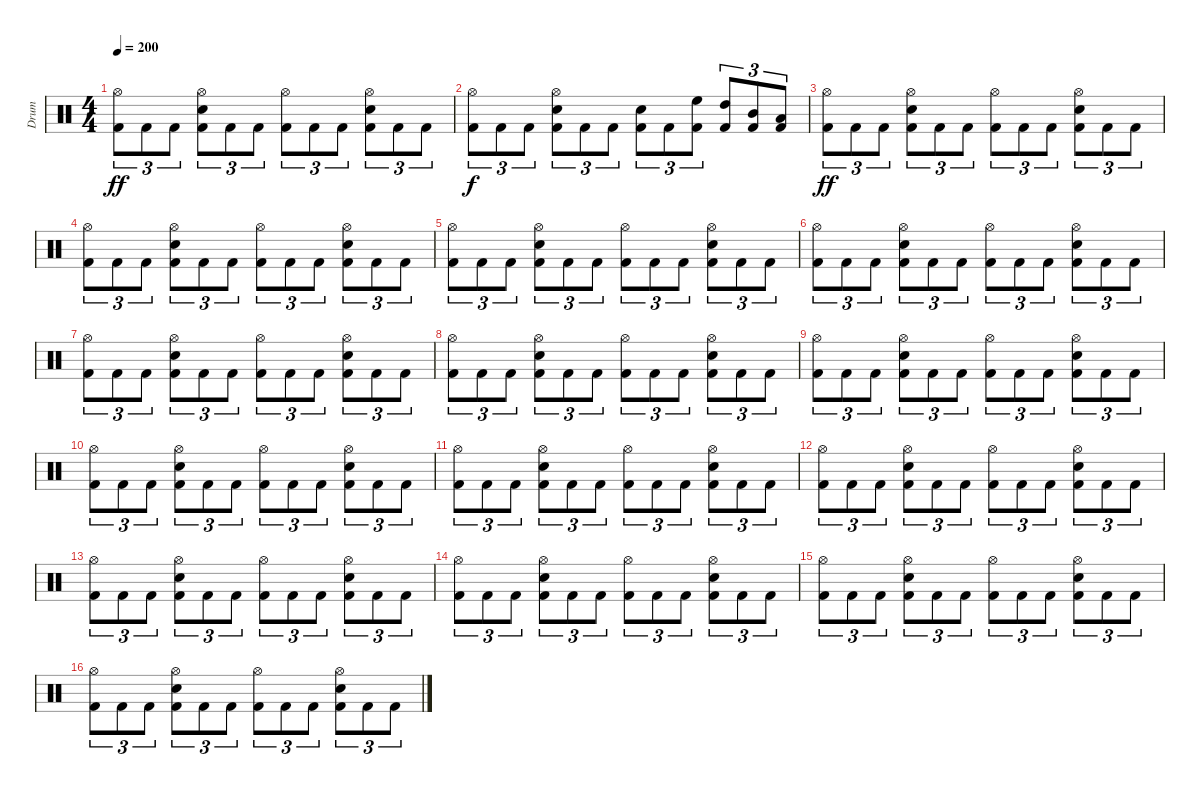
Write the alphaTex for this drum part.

\track ("Drum" "Drum") {instrument percussion}
\staff {score}
\articulation defaults
\ts (4 4)
\tempo 200
\clef neutral
\ks c
("Hi-Hat (open)" "Kick (hit) 2").8{tu (3 2) dy ff} "Kick (hit) 2".8{tu (3 2)} "Kick (hit) 2".8{tu (3 2)} ("Hi-Hat (open)" "Snare (hit) 2" "Kick (hit) 2").8{tu (3 2)} "Kick (hit) 2".8{tu (3 2)} "Kick (hit) 2".8{tu (3 2)} ("Hi-Hat (open)" "Kick (hit) 2").8{tu (3 2)} "Kick (hit) 2".8{tu (3 2)} "Kick (hit) 2".8{tu (3 2)} ("Hi-Hat (open)" "Snare (hit) 2" "Kick (hit) 2").8{tu (3 2)} "Kick (hit) 2".8{tu (3 2)} "Kick (hit) 2".8{tu (3 2)} |
("Hi-Hat (open)" "Kick (hit) 2").8{tu (3 2) dy f} "Kick (hit) 2".8{tu (3 2)} "Kick (hit) 2".8{tu (3 2)} ("Hi-Hat (open)" "Snare (hit) 2" "Kick (hit) 2").8{tu (3 2)} "Kick (hit) 2".8{tu (3 2)} "Kick (hit) 2".8{tu (3 2)} ("Snare (hit) 2" "Kick (hit) 2").8{tu (3 2)} "Kick (hit) 2".8{tu (3 2)} ("High Floor Tom (hit)" "Kick (hit) 2").8{tu (3 2)} ("High Tom (hit)" "Kick (hit) 2").8{tu (3 2)} ("Mid Tom (hit)" "Kick (hit) 2").8{tu (3 2)} ("Low Tom (hit)" "Kick (hit) 2").8{tu (3 2)} |
("Hi-Hat (open)" "Kick (hit) 2").8{tu (3 2) dy ff} "Kick (hit) 2".8{tu (3 2)} "Kick (hit) 2".8{tu (3 2)} ("Hi-Hat (open)" "Snare (hit) 2" "Kick (hit) 2").8{tu (3 2)} "Kick (hit) 2".8{tu (3 2)} "Kick (hit) 2".8{tu (3 2)} ("Hi-Hat (open)" "Kick (hit) 2").8{tu (3 2)} "Kick (hit) 2".8{tu (3 2)} "Kick (hit) 2".8{tu (3 2)} ("Hi-Hat (open)" "Snare (hit) 2" "Kick (hit) 2").8{tu (3 2)} "Kick (hit) 2".8{tu (3 2)} "Kick (hit) 2".8{tu (3 2)} |
("Hi-Hat (open)" "Kick (hit) 2").8{tu (3 2)} "Kick (hit) 2".8{tu (3 2)} "Kick (hit) 2".8{tu (3 2)} ("Hi-Hat (open)" "Snare (hit) 2" "Kick (hit) 2").8{tu (3 2)} "Kick (hit) 2".8{tu (3 2)} "Kick (hit) 2".8{tu (3 2)} ("Hi-Hat (open)" "Kick (hit) 2").8{tu (3 2)} "Kick (hit) 2".8{tu (3 2)} "Kick (hit) 2".8{tu (3 2)} ("Hi-Hat (open)" "Snare (hit) 2" "Kick (hit) 2").8{tu (3 2)} "Kick (hit) 2".8{tu (3 2)} "Kick (hit) 2".8{tu (3 2)} |
("Hi-Hat (open)" "Kick (hit) 2").8{tu (3 2)} "Kick (hit) 2".8{tu (3 2)} "Kick (hit) 2".8{tu (3 2)} ("Hi-Hat (open)" "Snare (hit) 2" "Kick (hit) 2").8{tu (3 2)} "Kick (hit) 2".8{tu (3 2)} "Kick (hit) 2".8{tu (3 2)} ("Hi-Hat (open)" "Kick (hit) 2").8{tu (3 2)} "Kick (hit) 2".8{tu (3 2)} "Kick (hit) 2".8{tu (3 2)} ("Hi-Hat (open)" "Snare (hit) 2" "Kick (hit) 2").8{tu (3 2)} "Kick (hit) 2".8{tu (3 2)} "Kick (hit) 2".8{tu (3 2)} |
("Hi-Hat (open)" "Kick (hit) 2").8{tu (3 2)} "Kick (hit) 2".8{tu (3 2)} "Kick (hit) 2".8{tu (3 2)} ("Hi-Hat (open)" "Snare (hit) 2" "Kick (hit) 2").8{tu (3 2)} "Kick (hit) 2".8{tu (3 2)} "Kick (hit) 2".8{tu (3 2)} ("Hi-Hat (open)" "Kick (hit) 2").8{tu (3 2)} "Kick (hit) 2".8{tu (3 2)} "Kick (hit) 2".8{tu (3 2)} ("Hi-Hat (open)" "Snare (hit) 2" "Kick (hit) 2").8{tu (3 2)} "Kick (hit) 2".8{tu (3 2)} "Kick (hit) 2".8{tu (3 2)} |
("Hi-Hat (open)" "Kick (hit) 2").8{tu (3 2)} "Kick (hit) 2".8{tu (3 2)} "Kick (hit) 2".8{tu (3 2)} ("Hi-Hat (open)" "Snare (hit) 2" "Kick (hit) 2").8{tu (3 2)} "Kick (hit) 2".8{tu (3 2)} "Kick (hit) 2".8{tu (3 2)} ("Hi-Hat (open)" "Kick (hit) 2").8{tu (3 2)} "Kick (hit) 2".8{tu (3 2)} "Kick (hit) 2".8{tu (3 2)} ("Hi-Hat (open)" "Snare (hit) 2" "Kick (hit) 2").8{tu (3 2)} "Kick (hit) 2".8{tu (3 2)} "Kick (hit) 2".8{tu (3 2)} |
("Hi-Hat (open)" "Kick (hit) 2").8{tu (3 2)} "Kick (hit) 2".8{tu (3 2)} "Kick (hit) 2".8{tu (3 2)} ("Hi-Hat (open)" "Snare (hit) 2" "Kick (hit) 2").8{tu (3 2)} "Kick (hit) 2".8{tu (3 2)} "Kick (hit) 2".8{tu (3 2)} ("Hi-Hat (open)" "Kick (hit) 2").8{tu (3 2)} "Kick (hit) 2".8{tu (3 2)} "Kick (hit) 2".8{tu (3 2)} ("Hi-Hat (open)" "Snare (hit) 2" "Kick (hit) 2").8{tu (3 2)} "Kick (hit) 2".8{tu (3 2)} "Kick (hit) 2".8{tu (3 2)} |
("Hi-Hat (open)" "Kick (hit) 2").8{tu (3 2)} "Kick (hit) 2".8{tu (3 2)} "Kick (hit) 2".8{tu (3 2)} ("Hi-Hat (open)" "Snare (hit) 2" "Kick (hit) 2").8{tu (3 2)} "Kick (hit) 2".8{tu (3 2)} "Kick (hit) 2".8{tu (3 2)} ("Hi-Hat (open)" "Kick (hit) 2").8{tu (3 2)} "Kick (hit) 2".8{tu (3 2)} "Kick (hit) 2".8{tu (3 2)} ("Hi-Hat (open)" "Snare (hit) 2" "Kick (hit) 2").8{tu (3 2)} "Kick (hit) 2".8{tu (3 2)} "Kick (hit) 2".8{tu (3 2)} |
("Hi-Hat (open)" "Kick (hit) 2").8{tu (3 2)} "Kick (hit) 2".8{tu (3 2)} "Kick (hit) 2".8{tu (3 2)} ("Hi-Hat (open)" "Snare (hit) 2" "Kick (hit) 2").8{tu (3 2)} "Kick (hit) 2".8{tu (3 2)} "Kick (hit) 2".8{tu (3 2)} ("Hi-Hat (open)" "Kick (hit) 2").8{tu (3 2)} "Kick (hit) 2".8{tu (3 2)} "Kick (hit) 2".8{tu (3 2)} ("Hi-Hat (open)" "Snare (hit) 2" "Kick (hit) 2").8{tu (3 2)} "Kick (hit) 2".8{tu (3 2)} "Kick (hit) 2".8{tu (3 2)} |
("Hi-Hat (open)" "Kick (hit) 2").8{tu (3 2)} "Kick (hit) 2".8{tu (3 2)} "Kick (hit) 2".8{tu (3 2)} ("Hi-Hat (open)" "Snare (hit) 2" "Kick (hit) 2").8{tu (3 2)} "Kick (hit) 2".8{tu (3 2)} "Kick (hit) 2".8{tu (3 2)} ("Hi-Hat (open)" "Kick (hit) 2").8{tu (3 2)} "Kick (hit) 2".8{tu (3 2)} "Kick (hit) 2".8{tu (3 2)} ("Hi-Hat (open)" "Snare (hit) 2" "Kick (hit) 2").8{tu (3 2)} "Kick (hit) 2".8{tu (3 2)} "Kick (hit) 2".8{tu (3 2)} |
("Hi-Hat (open)" "Kick (hit) 2").8{tu (3 2)} "Kick (hit) 2".8{tu (3 2)} "Kick (hit) 2".8{tu (3 2)} ("Hi-Hat (open)" "Snare (hit) 2" "Kick (hit) 2").8{tu (3 2)} "Kick (hit) 2".8{tu (3 2)} "Kick (hit) 2".8{tu (3 2)} ("Hi-Hat (open)" "Kick (hit) 2").8{tu (3 2)} "Kick (hit) 2".8{tu (3 2)} "Kick (hit) 2".8{tu (3 2)} ("Hi-Hat (open)" "Snare (hit) 2" "Kick (hit) 2").8{tu (3 2)} "Kick (hit) 2".8{tu (3 2)} "Kick (hit) 2".8{tu (3 2)} |
("Hi-Hat (open)" "Kick (hit) 2").8{tu (3 2)} "Kick (hit) 2".8{tu (3 2)} "Kick (hit) 2".8{tu (3 2)} ("Hi-Hat (open)" "Snare (hit) 2" "Kick (hit) 2").8{tu (3 2)} "Kick (hit) 2".8{tu (3 2)} "Kick (hit) 2".8{tu (3 2)} ("Hi-Hat (open)" "Kick (hit) 2").8{tu (3 2)} "Kick (hit) 2".8{tu (3 2)} "Kick (hit) 2".8{tu (3 2)} ("Hi-Hat (open)" "Snare (hit) 2" "Kick (hit) 2").8{tu (3 2)} "Kick (hit) 2".8{tu (3 2)} "Kick (hit) 2".8{tu (3 2)} |
("Hi-Hat (open)" "Kick (hit) 2").8{tu (3 2)} "Kick (hit) 2".8{tu (3 2)} "Kick (hit) 2".8{tu (3 2)} ("Hi-Hat (open)" "Snare (hit) 2" "Kick (hit) 2").8{tu (3 2)} "Kick (hit) 2".8{tu (3 2)} "Kick (hit) 2".8{tu (3 2)} ("Hi-Hat (open)" "Kick (hit) 2").8{tu (3 2)} "Kick (hit) 2".8{tu (3 2)} "Kick (hit) 2".8{tu (3 2)} ("Hi-Hat (open)" "Snare (hit) 2" "Kick (hit) 2").8{tu (3 2)} "Kick (hit) 2".8{tu (3 2)} "Kick (hit) 2".8{tu (3 2)} |
("Hi-Hat (open)" "Kick (hit) 2").8{tu (3 2)} "Kick (hit) 2".8{tu (3 2)} "Kick (hit) 2".8{tu (3 2)} ("Hi-Hat (open)" "Snare (hit) 2" "Kick (hit) 2").8{tu (3 2)} "Kick (hit) 2".8{tu (3 2)} "Kick (hit) 2".8{tu (3 2)} ("Hi-Hat (open)" "Kick (hit) 2").8{tu (3 2)} "Kick (hit) 2".8{tu (3 2)} "Kick (hit) 2".8{tu (3 2)} ("Hi-Hat (open)" "Snare (hit) 2" "Kick (hit) 2").8{tu (3 2)} "Kick (hit) 2".8{tu (3 2)} "Kick (hit) 2".8{tu (3 2)} |
("Hi-Hat (open)" "Kick (hit) 2").8{tu (3 2)} "Kick (hit) 2".8{tu (3 2)} "Kick (hit) 2".8{tu (3 2)} ("Hi-Hat (open)" "Snare (hit) 2" "Kick (hit) 2").8{tu (3 2)} "Kick (hit) 2".8{tu (3 2)} "Kick (hit) 2".8{tu (3 2)} ("Hi-Hat (open)" "Kick (hit) 2").8{tu (3 2)} "Kick (hit) 2".8{tu (3 2)} "Kick (hit) 2".8{tu (3 2)} ("Hi-Hat (open)" "Snare (hit) 2" "Kick (hit) 2").8{tu (3 2)} "Kick (hit) 2".8{tu (3 2)} "Kick (hit) 2".8{tu (3 2)}
